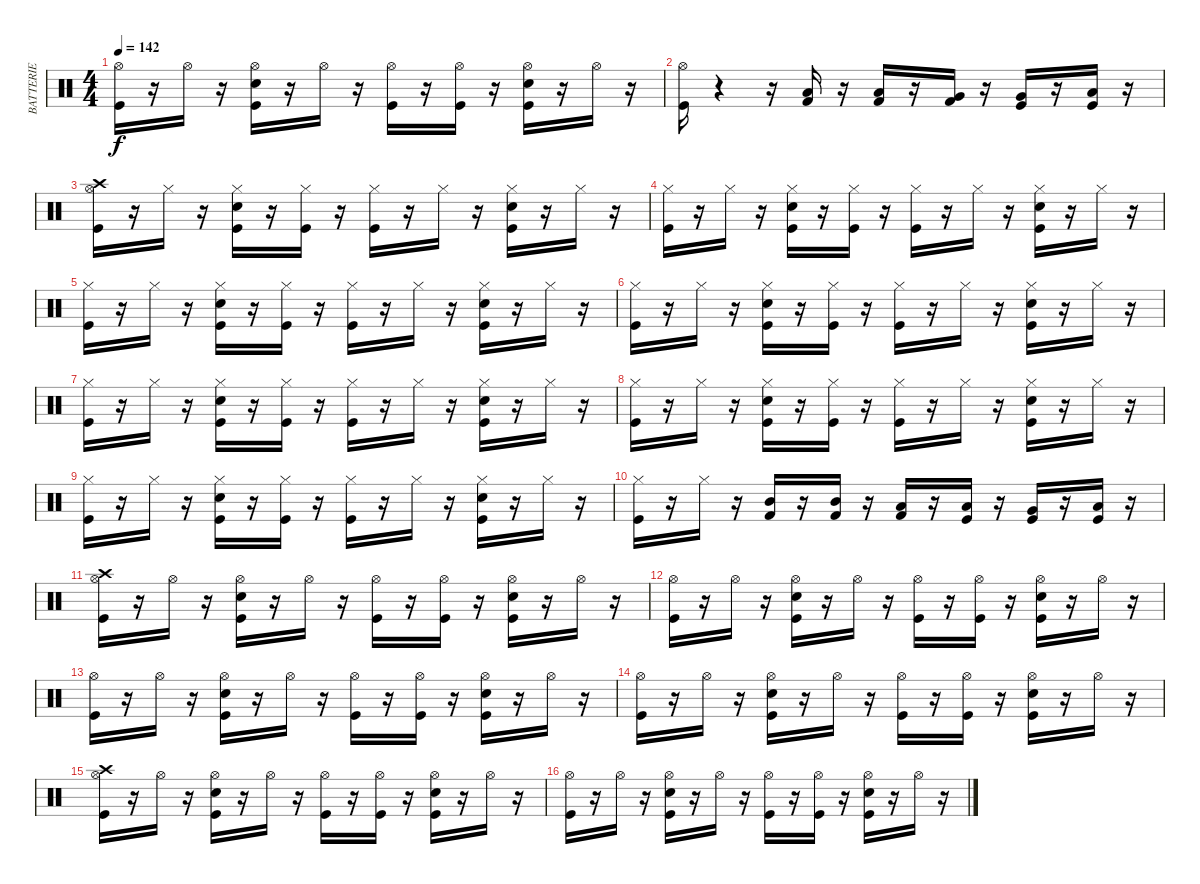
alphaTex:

\track ("BATTERIE" "BATTERIE") {instrument percussion}
\staff {score}
\articulation defaults
\ts (4 4)
\tempo 142
\clef neutral
\ks c
("Kick (hit)" "Hi-Hat (open)").16{dy f} r.16 "Hi-Hat (open)".16 r.16 ("Snare (hit) 2" "Kick (hit)" "Hi-Hat (open)").16 r.16 "Hi-Hat (open)".16 r.16 ("Kick (hit)" "Hi-Hat (open)").16 r.16 ("Kick (hit)" "Hi-Hat (open)").16 r.16 ("Kick (hit)" "Snare (hit) 2" "Hi-Hat (open)").16 r.16 "Hi-Hat (open)".16 r.16 |
("Kick (hit)" "Hi-Hat (open)").16 r.4 r.16 ("Low Tom (hit)" "Kick (hit) 2").16 r.16 ("Low Tom (hit)" "Kick (hit) 2").16 r.16 ("Very Low Tom (hit)" "Kick (hit) 2").16 r.16 ("Very Low Tom (hit)" "Kick (hit)").16 r.16 ("Low Floor Tom (hit)" "Kick (hit)").16 r.16 |
("Kick (hit)" "Hi-Hat (open)" "Crash high (hit)").16 r.16 "Hi-Hat (closed)".16 r.16 ("Snare (hit) 2" "Kick (hit)" "Hi-Hat (closed)").16 r.16 ("Kick (hit)" "Hi-Hat (closed)").16 r.16 ("Kick (hit)" "Hi-Hat (closed)").16 r.16 "Hi-Hat (closed)".16 r.16 ("Snare (hit) 2" "Kick (hit)" "Hi-Hat (closed)").16 r.16 "Hi-Hat (closed)".16 r.16 |
("Kick (hit)" "Hi-Hat (closed)").16 r.16 "Hi-Hat (closed)".16 r.16 ("Snare (hit) 2" "Kick (hit)" "Hi-Hat (closed)").16 r.16 ("Kick (hit)" "Hi-Hat (closed)").16 r.16 ("Kick (hit)" "Hi-Hat (closed)").16 r.16 "Hi-Hat (closed)".16 r.16 ("Snare (hit) 2" "Kick (hit)" "Hi-Hat (closed)").16 r.16 "Hi-Hat (closed)".16 r.16 |
("Hi-Hat (closed)" "Kick (hit)").16 r.16 "Hi-Hat (closed)".16 r.16 ("Snare (hit) 2" "Kick (hit)" "Hi-Hat (closed)").16 r.16 ("Kick (hit)" "Hi-Hat (closed)").16 r.16 ("Kick (hit)" "Hi-Hat (closed)").16 r.16 "Hi-Hat (closed)".16 r.16 ("Snare (hit) 2" "Kick (hit)" "Hi-Hat (closed)").16 r.16 "Hi-Hat (closed)".16 r.16 |
("Hi-Hat (closed)" "Kick (hit)").16 r.16 "Hi-Hat (closed)".16 r.16 ("Snare (hit) 2" "Kick (hit)" "Hi-Hat (closed)").16 r.16 ("Kick (hit)" "Hi-Hat (closed)").16 r.16 ("Kick (hit)" "Hi-Hat (closed)").16 r.16 "Hi-Hat (closed)".16 r.16 ("Snare (hit) 2" "Kick (hit)" "Hi-Hat (closed)").16 r.16 "Hi-Hat (closed)".16 r.16 |
("Hi-Hat (closed)" "Kick (hit)").16 r.16 "Hi-Hat (closed)".16 r.16 ("Snare (hit) 2" "Kick (hit)" "Hi-Hat (closed)").16 r.16 ("Kick (hit)" "Hi-Hat (closed)").16 r.16 ("Kick (hit)" "Hi-Hat (closed)").16 r.16 "Hi-Hat (closed)".16 r.16 ("Snare (hit) 2" "Kick (hit)" "Hi-Hat (closed)").16 r.16 "Hi-Hat (closed)".16 r.16 |
("Hi-Hat (closed)" "Kick (hit)").16 r.16 "Hi-Hat (closed)".16 r.16 ("Snare (hit) 2" "Kick (hit)" "Hi-Hat (closed)").16 r.16 ("Kick (hit)" "Hi-Hat (closed)").16 r.16 ("Kick (hit)" "Hi-Hat (closed)").16 r.16 "Hi-Hat (closed)".16 r.16 ("Snare (hit) 2" "Kick (hit)" "Hi-Hat (closed)").16 r.16 "Hi-Hat (closed)".16 r.16 |
("Hi-Hat (closed)" "Kick (hit)").16 r.16 "Hi-Hat (closed)".16 r.16 ("Snare (hit) 2" "Kick (hit)" "Hi-Hat (closed)").16 r.16 ("Kick (hit)" "Hi-Hat (closed)").16 r.16 ("Kick (hit)" "Hi-Hat (closed)").16 r.16 "Hi-Hat (closed)".16 r.16 ("Snare (hit) 2" "Kick (hit)" "Hi-Hat (closed)").16 r.16 "Hi-Hat (closed)".16 r.16 |
("Hi-Hat (closed)" "Kick (hit)").16 r.16 "Hi-Hat (closed)".16 r.16 ("Kick (hit) 2" "Mid Tom (hit)").16 r.16 ("Kick (hit) 2" "Mid Tom (hit)").16 r.16 ("Kick (hit) 2" "Low Tom (hit)").16 r.16 ("Kick (hit)" "Low Tom (hit)").16 r.16 ("Kick (hit)" "Very Low Tom (hit)").16 r.16 ("Kick (hit)" "Low Floor Tom (hit)").16 r.16 |
("Crash high (hit)" "Hi-Hat (open)" "Kick (hit)").16 r.16 "Hi-Hat (open)".16 r.16 ("Snare (hit) 2" "Kick (hit)" "Hi-Hat (open)").16 r.16 "Hi-Hat (open)".16 r.16 ("Kick (hit)" "Hi-Hat (open)").16 r.16 ("Kick (hit)" "Hi-Hat (open)").16 r.16 ("Kick (hit)" "Snare (hit) 2" "Hi-Hat (open)").16 r.16 "Hi-Hat (open)".16 r.16 |
("Kick (hit)" "Hi-Hat (open)").16 r.16 "Hi-Hat (open)".16 r.16 ("Snare (hit) 2" "Kick (hit)" "Hi-Hat (open)").16 r.16 "Hi-Hat (open)".16 r.16 ("Kick (hit)" "Hi-Hat (open)").16 r.16 ("Kick (hit)" "Hi-Hat (open)").16 r.16 ("Kick (hit)" "Snare (hit) 2" "Hi-Hat (open)").16 r.16 "Hi-Hat (open)".16 r.16 |
("Hi-Hat (open)" "Kick (hit)").16 r.16 "Hi-Hat (open)".16 r.16 ("Snare (hit) 2" "Kick (hit)" "Hi-Hat (open)").16 r.16 "Hi-Hat (open)".16 r.16 ("Kick (hit)" "Hi-Hat (open)").16 r.16 ("Kick (hit)" "Hi-Hat (open)").16 r.16 ("Kick (hit)" "Snare (hit) 2" "Hi-Hat (open)").16 r.16 "Hi-Hat (open)".16 r.16 |
("Hi-Hat (open)" "Kick (hit)").16 r.16 "Hi-Hat (open)".16 r.16 ("Snare (hit) 2" "Kick (hit)" "Hi-Hat (open)").16 r.16 "Hi-Hat (open)".16 r.16 ("Kick (hit)" "Hi-Hat (open)").16 r.16 ("Kick (hit)" "Hi-Hat (open)").16 r.16 ("Kick (hit)" "Snare (hit) 2" "Hi-Hat (open)").16 r.16 "Hi-Hat (open)".16 r.16 |
("Hi-Hat (open)" "Kick (hit)" "Crash high (hit)").16 r.16 "Hi-Hat (open)".16 r.16 ("Snare (hit) 2" "Kick (hit)" "Hi-Hat (open)").16 r.16 "Hi-Hat (open)".16 r.16 ("Kick (hit)" "Hi-Hat (open)").16 r.16 ("Kick (hit)" "Hi-Hat (open)").16 r.16 ("Kick (hit)" "Snare (hit) 2" "Hi-Hat (open)").16 r.16 "Hi-Hat (open)".16 r.16 |
("Hi-Hat (open)" "Kick (hit)").16 r.16 "Hi-Hat (open)".16 r.16 ("Snare (hit) 2" "Kick (hit)" "Hi-Hat (open)").16 r.16 "Hi-Hat (open)".16 r.16 ("Kick (hit)" "Hi-Hat (open)").16 r.16 ("Kick (hit)" "Hi-Hat (open)").16 r.16 ("Kick (hit)" "Snare (hit) 2" "Hi-Hat (open)").16 r.16 "Hi-Hat (open)".16 r.16
